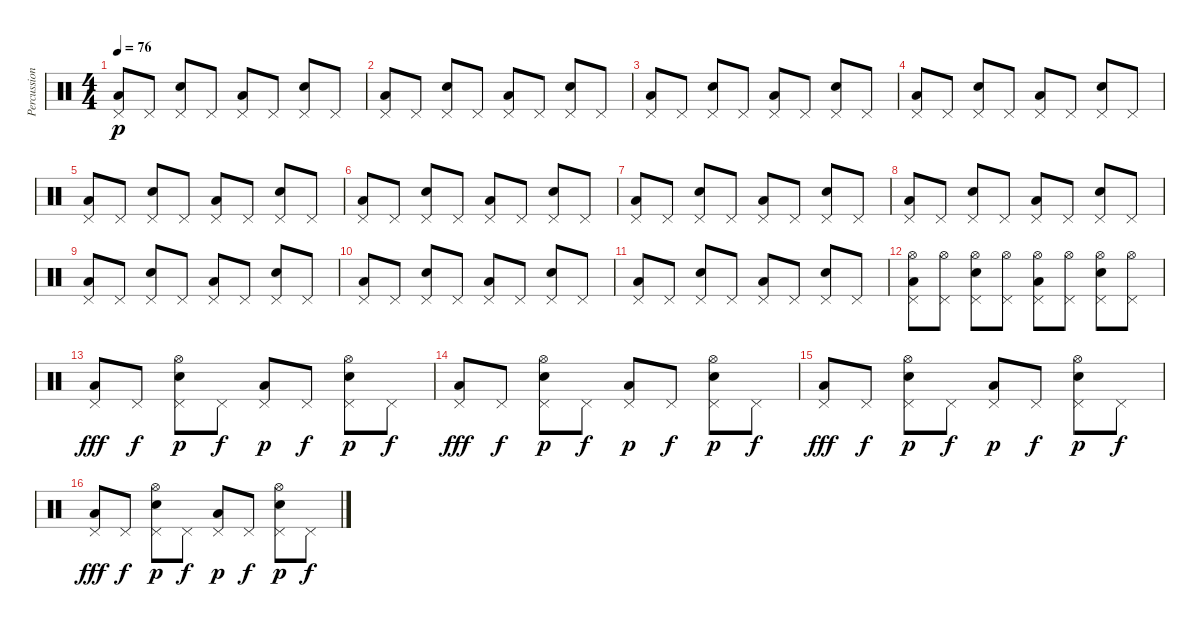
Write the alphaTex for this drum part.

\track ("Percussion" "Percussion") {instrument percussion}
\staff {score}
\articulation defaults
\ts (4 4)
\tempo 76
\clef neutral
\ks c
("Low Floor Tom (hit)" "Pedal Hi-Hat (hit)").8{dy p} "Pedal Hi-Hat (hit)".8 ("Electric Snare (hit)" "Pedal Hi-Hat (hit)").8 "Pedal Hi-Hat (hit)".8 ("Low Floor Tom (hit)" "Pedal Hi-Hat (hit)").8 "Pedal Hi-Hat (hit)".8 ("Electric Snare (hit)" "Pedal Hi-Hat (hit)").8 "Pedal Hi-Hat (hit)".8 |
("Low Floor Tom (hit)" "Pedal Hi-Hat (hit)").8 "Pedal Hi-Hat (hit)".8 ("Electric Snare (hit)" "Pedal Hi-Hat (hit)").8 "Pedal Hi-Hat (hit)".8 ("Low Floor Tom (hit)" "Pedal Hi-Hat (hit)").8 "Pedal Hi-Hat (hit)".8 ("Electric Snare (hit)" "Pedal Hi-Hat (hit)").8 "Pedal Hi-Hat (hit)".8 |
("Low Floor Tom (hit)" "Pedal Hi-Hat (hit)").8 "Pedal Hi-Hat (hit)".8 ("Electric Snare (hit)" "Pedal Hi-Hat (hit)").8 "Pedal Hi-Hat (hit)".8 ("Low Floor Tom (hit)" "Pedal Hi-Hat (hit)").8 "Pedal Hi-Hat (hit)".8 ("Electric Snare (hit)" "Pedal Hi-Hat (hit)").8 "Pedal Hi-Hat (hit)".8 |
("Low Floor Tom (hit)" "Pedal Hi-Hat (hit)").8 "Pedal Hi-Hat (hit)".8 ("Electric Snare (hit)" "Pedal Hi-Hat (hit)").8 "Pedal Hi-Hat (hit)".8 ("Low Floor Tom (hit)" "Pedal Hi-Hat (hit)").8 "Pedal Hi-Hat (hit)".8 ("Electric Snare (hit)" "Pedal Hi-Hat (hit)").8 "Pedal Hi-Hat (hit)".8 |
("Low Floor Tom (hit)" "Pedal Hi-Hat (hit)").8 "Pedal Hi-Hat (hit)".8 ("Electric Snare (hit)" "Pedal Hi-Hat (hit)").8 "Pedal Hi-Hat (hit)".8 ("Low Floor Tom (hit)" "Pedal Hi-Hat (hit)").8 "Pedal Hi-Hat (hit)".8 ("Electric Snare (hit)" "Pedal Hi-Hat (hit)").8 "Pedal Hi-Hat (hit)".8 |
("Low Floor Tom (hit)" "Pedal Hi-Hat (hit)").8 "Pedal Hi-Hat (hit)".8 ("Electric Snare (hit)" "Pedal Hi-Hat (hit)").8 "Pedal Hi-Hat (hit)".8 ("Low Floor Tom (hit)" "Pedal Hi-Hat (hit)").8 "Pedal Hi-Hat (hit)".8 ("Electric Snare (hit)" "Pedal Hi-Hat (hit)").8 "Pedal Hi-Hat (hit)".8 |
("Low Floor Tom (hit)" "Pedal Hi-Hat (hit)").8 "Pedal Hi-Hat (hit)".8 ("Electric Snare (hit)" "Pedal Hi-Hat (hit)").8 "Pedal Hi-Hat (hit)".8 ("Low Floor Tom (hit)" "Pedal Hi-Hat (hit)").8 "Pedal Hi-Hat (hit)".8 ("Electric Snare (hit)" "Pedal Hi-Hat (hit)").8 "Pedal Hi-Hat (hit)".8 |
("Low Floor Tom (hit)" "Pedal Hi-Hat (hit)").8 "Pedal Hi-Hat (hit)".8 ("Electric Snare (hit)" "Pedal Hi-Hat (hit)").8 "Pedal Hi-Hat (hit)".8 ("Low Floor Tom (hit)" "Pedal Hi-Hat (hit)").8 "Pedal Hi-Hat (hit)".8 ("Electric Snare (hit)" "Pedal Hi-Hat (hit)").8 "Pedal Hi-Hat (hit)".8 |
("Low Floor Tom (hit)" "Pedal Hi-Hat (hit)").8 "Pedal Hi-Hat (hit)".8 ("Electric Snare (hit)" "Pedal Hi-Hat (hit)").8 "Pedal Hi-Hat (hit)".8 ("Low Floor Tom (hit)" "Pedal Hi-Hat (hit)").8 "Pedal Hi-Hat (hit)".8 ("Electric Snare (hit)" "Pedal Hi-Hat (hit)").8 "Pedal Hi-Hat (hit)".8 |
("Low Floor Tom (hit)" "Pedal Hi-Hat (hit)").8 "Pedal Hi-Hat (hit)".8 ("Electric Snare (hit)" "Pedal Hi-Hat (hit)").8 "Pedal Hi-Hat (hit)".8 ("Low Floor Tom (hit)" "Pedal Hi-Hat (hit)").8 "Pedal Hi-Hat (hit)".8 ("Electric Snare (hit)" "Pedal Hi-Hat (hit)").8 "Pedal Hi-Hat (hit)".8 |
("Low Floor Tom (hit)" "Pedal Hi-Hat (hit)").8 "Pedal Hi-Hat (hit)".8 ("Electric Snare (hit)" "Pedal Hi-Hat (hit)").8 "Pedal Hi-Hat (hit)".8 ("Low Floor Tom (hit)" "Pedal Hi-Hat (hit)").8 "Pedal Hi-Hat (hit)".8 ("Electric Snare (hit)" "Pedal Hi-Hat (hit)").8 "Pedal Hi-Hat (hit)".8 |
("Low Floor Tom (hit)" "Pedal Hi-Hat (hit)" "Hi-Hat (open)").8 ("Pedal Hi-Hat (hit)" "Hi-Hat (open)").8 ("Electric Snare (hit)" "Pedal Hi-Hat (hit)" "Hi-Hat (open)").8 ("Pedal Hi-Hat (hit)" "Hi-Hat (open)").8 ("Low Floor Tom (hit)" "Pedal Hi-Hat (hit)" "Hi-Hat (open)").8 ("Pedal Hi-Hat (hit)" "Hi-Hat (open)").8 ("Electric Snare (hit)" "Pedal Hi-Hat (hit)" "Hi-Hat (open)").8 ("Pedal Hi-Hat (hit)" "Hi-Hat (open)").8 |
("Low Floor Tom (hit)" "Pedal Hi-Hat (hit)").8{dy fff} "Pedal Hi-Hat (hit)".8{dy f} ("Electric Snare (hit)" "Pedal Hi-Hat (hit)" "Hi-Hat (open)").8{dy p} "Pedal Hi-Hat (hit)".8{dy f} ("Low Floor Tom (hit)" "Pedal Hi-Hat (hit)").8{dy p} "Pedal Hi-Hat (hit)".8{dy f} ("Electric Snare (hit)" "Pedal Hi-Hat (hit)" "Hi-Hat (open)").8{dy p} "Pedal Hi-Hat (hit)".8{dy f} |
("Low Floor Tom (hit)" "Pedal Hi-Hat (hit)").8{dy fff} "Pedal Hi-Hat (hit)".8{dy f} ("Electric Snare (hit)" "Pedal Hi-Hat (hit)" "Hi-Hat (open)").8{dy p} "Pedal Hi-Hat (hit)".8{dy f} ("Low Floor Tom (hit)" "Pedal Hi-Hat (hit)").8{dy p} "Pedal Hi-Hat (hit)".8{dy f} ("Electric Snare (hit)" "Pedal Hi-Hat (hit)" "Hi-Hat (open)").8{dy p} "Pedal Hi-Hat (hit)".8{dy f} |
("Low Floor Tom (hit)" "Pedal Hi-Hat (hit)").8{dy fff} "Pedal Hi-Hat (hit)".8{dy f} ("Electric Snare (hit)" "Pedal Hi-Hat (hit)" "Hi-Hat (open)").8{dy p} "Pedal Hi-Hat (hit)".8{dy f} ("Low Floor Tom (hit)" "Pedal Hi-Hat (hit)").8{dy p} "Pedal Hi-Hat (hit)".8{dy f} ("Electric Snare (hit)" "Pedal Hi-Hat (hit)" "Hi-Hat (open)").8{dy p} "Pedal Hi-Hat (hit)".8{dy f} |
("Low Floor Tom (hit)" "Pedal Hi-Hat (hit)").8{dy fff} "Pedal Hi-Hat (hit)".8{dy f} ("Electric Snare (hit)" "Pedal Hi-Hat (hit)" "Hi-Hat (open)").8{dy p} "Pedal Hi-Hat (hit)".8{dy f} ("Low Floor Tom (hit)" "Pedal Hi-Hat (hit)").8{dy p} "Pedal Hi-Hat (hit)".8{dy f} ("Electric Snare (hit)" "Pedal Hi-Hat (hit)" "Hi-Hat (open)").8{dy p} "Pedal Hi-Hat (hit)".8{dy f}
